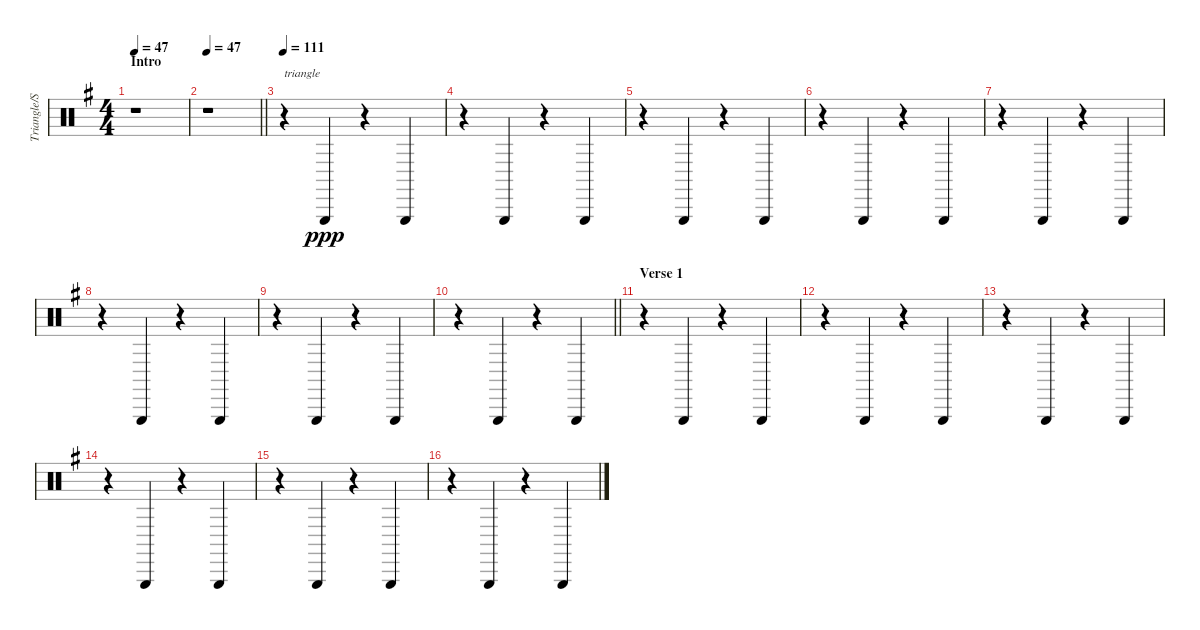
\track ("Triangle/Shaker" "Triangle/S") {instrument percussion}
\staff {score}
\articulation defaults
\ts (4 4)
\section ("" "Intro")
\tempo 47
\clef neutral
\ks g
r.1{dy ppp} |
\tempo 47
\barLineRight lightlight
r.1 |
\section ("" "")
\tempo 111
r.4{txt "triangle"} "Triangle (hit)".4 r.4 "Triangle (hit)".4 |
r.4 "Triangle (hit)".4 r.4 "Triangle (hit)".4 |
r.4 "Triangle (hit)".4 r.4 "Triangle (hit)".4 |
r.4 "Triangle (hit)".4 r.4 "Triangle (hit)".4 |
r.4 "Triangle (hit)".4 r.4 "Triangle (hit)".4 |
r.4 "Triangle (hit)".4 r.4 "Triangle (hit)".4 |
r.4 "Triangle (hit)".4 r.4 "Triangle (hit)".4 |
\barLineRight lightlight
r.4 "Triangle (hit)".4 r.4 "Triangle (hit)".4 |
\section ("" "Verse 1")
r.4 "Triangle (hit)".4 r.4 "Triangle (hit)".4 |
r.4 "Triangle (hit)".4 r.4 "Triangle (hit)".4 |
r.4 "Triangle (hit)".4 r.4 "Triangle (hit)".4 |
r.4 "Triangle (hit)".4 r.4 "Triangle (hit)".4 |
r.4 "Triangle (hit)".4 r.4 "Triangle (hit)".4 |
r.4 "Triangle (hit)".4 r.4 "Triangle (hit)".4
